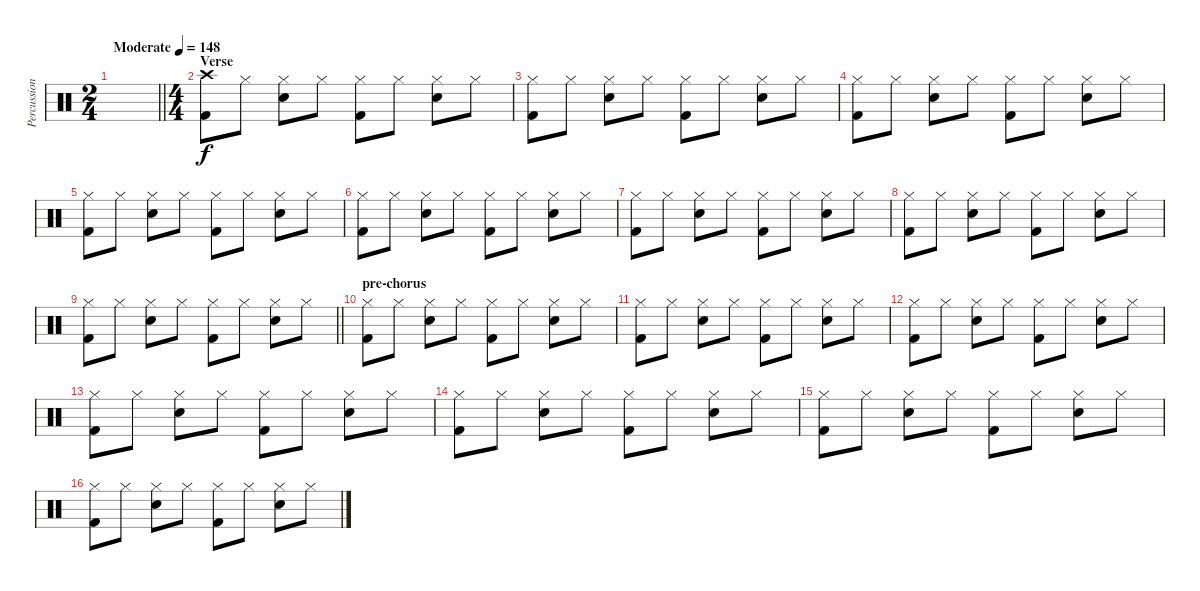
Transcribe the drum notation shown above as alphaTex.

\track ("Percussion" "Percussion") {instrument percussion}
\staff {score}
\articulation defaults
\ts (2 4)
\tempo (148 "Moderate")
\clef neutral
\barLineRight lightlight
\ks c
|
\ts (4 4)
\section ("" "Verse")
("Crash high (hit)" "Kick (hit) 2").8 "Hi-Hat (closed)".8 ("Hi-Hat (closed)" "Electric Snare (hit)").8 "Hi-Hat (closed)".8 ("Hi-Hat (closed)" "Kick (hit) 2").8 "Hi-Hat (closed)".8 ("Hi-Hat (closed)" "Electric Snare (hit)").8 "Hi-Hat (closed)".8 |
("Hi-Hat (closed)" "Kick (hit) 2").8 "Hi-Hat (closed)".8 ("Hi-Hat (closed)" "Electric Snare (hit)").8 "Hi-Hat (closed)".8 ("Hi-Hat (closed)" "Kick (hit) 2").8 "Hi-Hat (closed)".8 ("Hi-Hat (closed)" "Electric Snare (hit)").8 "Hi-Hat (closed)".8 |
("Hi-Hat (closed)" "Kick (hit) 2").8 "Hi-Hat (closed)".8 ("Hi-Hat (closed)" "Electric Snare (hit)").8 "Hi-Hat (closed)".8 ("Hi-Hat (closed)" "Kick (hit) 2").8 "Hi-Hat (closed)".8 ("Hi-Hat (closed)" "Electric Snare (hit)").8 "Hi-Hat (closed)".8 |
("Hi-Hat (closed)" "Kick (hit) 2").8 "Hi-Hat (closed)".8 ("Hi-Hat (closed)" "Electric Snare (hit)").8 "Hi-Hat (closed)".8 ("Hi-Hat (closed)" "Kick (hit) 2").8 "Hi-Hat (closed)".8 ("Hi-Hat (closed)" "Electric Snare (hit)").8 "Hi-Hat (closed)".8 |
("Hi-Hat (closed)" "Kick (hit) 2").8 "Hi-Hat (closed)".8 ("Hi-Hat (closed)" "Electric Snare (hit)").8 "Hi-Hat (closed)".8 ("Hi-Hat (closed)" "Kick (hit) 2").8 "Hi-Hat (closed)".8 ("Hi-Hat (closed)" "Electric Snare (hit)").8 "Hi-Hat (closed)".8 |
("Hi-Hat (closed)" "Kick (hit) 2").8 "Hi-Hat (closed)".8 ("Hi-Hat (closed)" "Electric Snare (hit)").8 "Hi-Hat (closed)".8 ("Hi-Hat (closed)" "Kick (hit) 2").8 "Hi-Hat (closed)".8 ("Hi-Hat (closed)" "Electric Snare (hit)").8 "Hi-Hat (closed)".8 |
("Hi-Hat (closed)" "Kick (hit) 2").8 "Hi-Hat (closed)".8 ("Hi-Hat (closed)" "Electric Snare (hit)").8 "Hi-Hat (closed)".8 ("Hi-Hat (closed)" "Kick (hit) 2").8 "Hi-Hat (closed)".8 ("Hi-Hat (closed)" "Electric Snare (hit)").8 "Hi-Hat (closed)".8 |
\barLineRight lightlight
("Hi-Hat (closed)" "Kick (hit) 2").8 "Hi-Hat (closed)".8 ("Hi-Hat (closed)" "Electric Snare (hit)").8 "Hi-Hat (closed)".8 ("Hi-Hat (closed)" "Kick (hit) 2").8 "Hi-Hat (closed)".8 ("Hi-Hat (closed)" "Electric Snare (hit)").8 "Hi-Hat (closed)".8 |
\section ("" "pre-chorus")
("Hi-Hat (closed)" "Kick (hit) 2").8 "Hi-Hat (closed)".8 ("Hi-Hat (closed)" "Electric Snare (hit)").8 "Hi-Hat (closed)".8 ("Hi-Hat (closed)" "Kick (hit) 2").8 "Hi-Hat (closed)".8 ("Hi-Hat (closed)" "Electric Snare (hit)").8 "Hi-Hat (closed)".8 |
("Hi-Hat (closed)" "Kick (hit) 2").8 "Hi-Hat (closed)".8 ("Hi-Hat (closed)" "Electric Snare (hit)").8 "Hi-Hat (closed)".8 ("Hi-Hat (closed)" "Kick (hit) 2").8 "Hi-Hat (closed)".8 ("Hi-Hat (closed)" "Electric Snare (hit)").8 "Hi-Hat (closed)".8 |
("Hi-Hat (closed)" "Kick (hit) 2").8 "Hi-Hat (closed)".8 ("Hi-Hat (closed)" "Electric Snare (hit)").8 "Hi-Hat (closed)".8 ("Hi-Hat (closed)" "Kick (hit) 2").8 "Hi-Hat (closed)".8 ("Hi-Hat (closed)" "Electric Snare (hit)").8 "Hi-Hat (closed)".8 |
("Hi-Hat (closed)" "Kick (hit) 2").8 "Hi-Hat (closed)".8 ("Hi-Hat (closed)" "Electric Snare (hit)").8 "Hi-Hat (closed)".8 ("Hi-Hat (closed)" "Kick (hit) 2").8 "Hi-Hat (closed)".8 ("Hi-Hat (closed)" "Electric Snare (hit)").8 "Hi-Hat (closed)".8 |
("Hi-Hat (closed)" "Kick (hit) 2").8 "Hi-Hat (closed)".8 ("Hi-Hat (closed)" "Electric Snare (hit)").8 "Hi-Hat (closed)".8 ("Hi-Hat (closed)" "Kick (hit) 2").8 "Hi-Hat (closed)".8 ("Hi-Hat (closed)" "Electric Snare (hit)").8 "Hi-Hat (closed)".8 |
("Hi-Hat (closed)" "Kick (hit) 2").8 "Hi-Hat (closed)".8 ("Hi-Hat (closed)" "Electric Snare (hit)").8 "Hi-Hat (closed)".8 ("Hi-Hat (closed)" "Kick (hit) 2").8 "Hi-Hat (closed)".8 ("Hi-Hat (closed)" "Electric Snare (hit)").8 "Hi-Hat (closed)".8 |
("Hi-Hat (closed)" "Kick (hit) 2").8 "Hi-Hat (closed)".8 ("Hi-Hat (closed)" "Electric Snare (hit)").8 "Hi-Hat (closed)".8 ("Hi-Hat (closed)" "Kick (hit) 2").8 "Hi-Hat (closed)".8 ("Hi-Hat (closed)" "Electric Snare (hit)").8 "Hi-Hat (closed)".8
